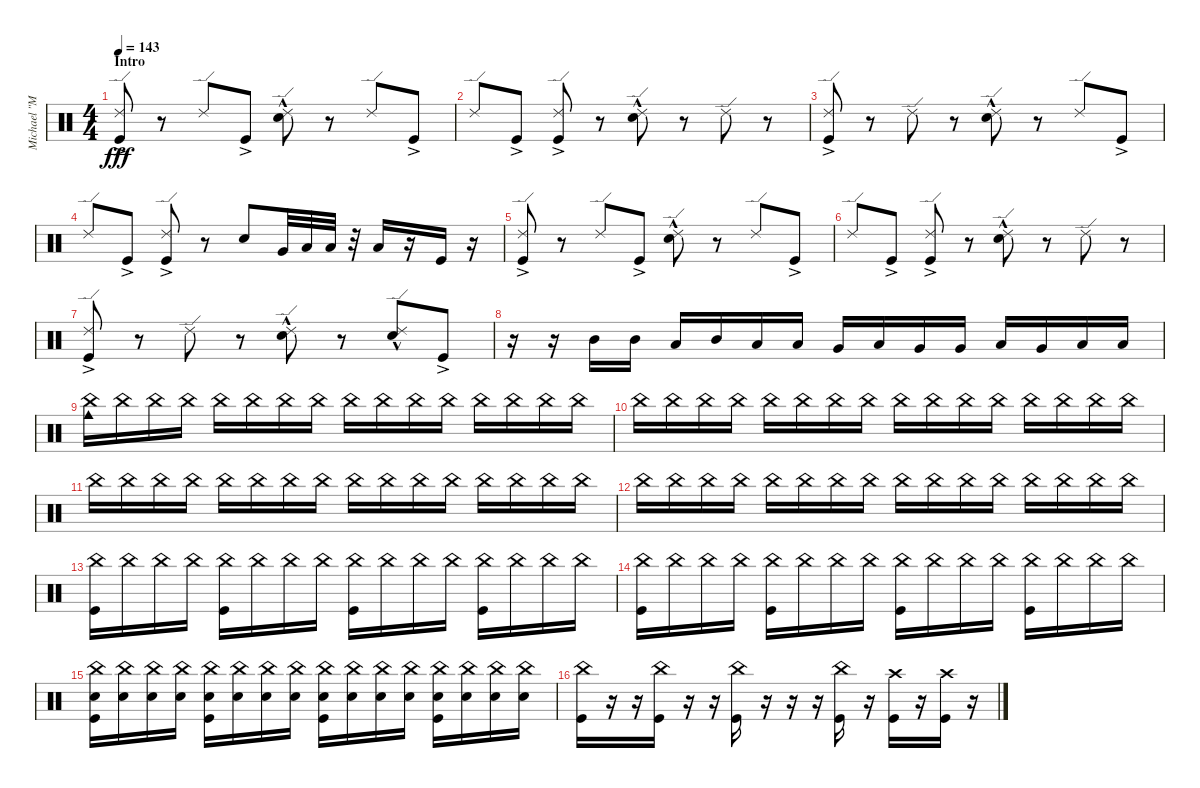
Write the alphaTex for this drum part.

\track ("Michael \"Moose\" Thomas" "Michael \"M") {instrument percussion}
\staff {score}
\articulation defaults
\ts (4 4)
\section ("" "Intro")
\tempo 143
\clef neutral
\ks c
("Kick (hit)"{ac} "Ride (edge) 2").8{dy fff} r.8 "Ride (edge) 2".8 "Kick (hit)"{ac}.8 ("Snare (hit) 2"{hac} "Ride (edge) 2").8 r.8 "Ride (edge) 2".8 "Kick (hit)"{ac}.8 |
"Ride (edge) 2".8 "Kick (hit)"{ac}.8 ("Kick (hit)"{ac} "Ride (edge) 2").8 r.8 ("Snare (hit) 2"{hac} "Ride (edge) 2").8 r.8 "Ride (edge) 2".8 r.8 |
("Kick (hit)"{ac} "Ride (edge) 2").8 r.8 "Ride (edge) 2".8 r.8 ("Snare (hit) 2"{hac} "Ride (edge) 2").8 r.8 "Ride (edge) 2".8 "Kick (hit)"{ac}.8 |
"Ride (edge) 2".8 "Kick (hit)"{ac}.8 ("Kick (hit)"{ac} "Ride (edge) 2").8 r.8 "Snare (hit) 2".8 "Very Low Tom (hit)".32 "Low Floor Tom (hit)".32 "Low Floor Tom (hit)".32 r.32 "Low Floor Tom (hit)".16 r.16 "Kick (hit)".16 r.16 |
("Kick (hit)"{ac} "Ride (edge) 2").8 r.8 "Ride (edge) 2".8 "Kick (hit)"{ac}.8 ("Snare (hit) 2"{hac} "Ride (edge) 2").8 r.8 "Ride (edge) 2".8 "Kick (hit)"{ac}.8 |
"Ride (edge) 2".8 "Kick (hit)"{ac}.8 ("Kick (hit)"{ac} "Ride (edge) 2").8 r.8 ("Snare (hit) 2"{hac} "Ride (edge) 2").8 r.8 "Ride (edge) 2".8 r.8 |
("Kick (hit)"{ac} "Ride (edge) 2").8 r.8 "Ride (edge) 2".8 r.8 ("Snare (hit) 2"{hac} "Ride (edge) 2").8 r.8 ("Ride (edge) 2" "Snare (hit) 2"{hac}).8 "Kick (hit)"{ac}.8 |
r.16 r.16 "Mid Tom (hit)".16 "Mid Tom (hit)".16 "Low Tom (hit)".16 "Mid Tom (hit)".16 "Low Tom (hit)".16 "Low Tom (hit)".16 "Very Low Tom (hit)".16 "Low Tom (hit)".16 "Very Low Tom (hit)".16 "Very Low Tom (hit)".16 "Low Floor Tom (hit)".16 "Very Low Tom (hit)".16 "Low Floor Tom (hit)".16 "Low Floor Tom (hit)".16 |
("Cowbell medium (hit)" "China (hit)").16 "China (hit)".16 "China (hit)".16 "China (hit)".16 "China (hit)".16 "China (hit)".16 "China (hit)".16 "China (hit)".16 "China (hit)".16 "China (hit)".16 "China (hit)".16 "China (hit)".16 "China (hit)".16 "China (hit)".16 "China (hit)".16 "China (hit)".16 |
"China (hit)".16 "China (hit)".16 "China (hit)".16 "China (hit)".16 "China (hit)".16 "China (hit)".16 "China (hit)".16 "China (hit)".16 "China (hit)".16 "China (hit)".16 "China (hit)".16 "China (hit)".16 "China (hit)".16 "China (hit)".16 "China (hit)".16 "China (hit)".16 |
"China (hit)".16 "China (hit)".16 "China (hit)".16 "China (hit)".16 "China (hit)".16 "China (hit)".16 "China (hit)".16 "China (hit)".16 "China (hit)".16 "China (hit)".16 "China (hit)".16 "China (hit)".16 "China (hit)".16 "China (hit)".16 "China (hit)".16 "China (hit)".16 |
"China (hit)".16 "China (hit)".16 "China (hit)".16 "China (hit)".16 "China (hit)".16 "China (hit)".16 "China (hit)".16 "China (hit)".16 "China (hit)".16 "China (hit)".16 "China (hit)".16 "China (hit)".16 "China (hit)".16 "China (hit)".16 "China (hit)".16 "China (hit)".16 |
("China (hit)" "Kick (hit)").16 "China (hit)".16 "China (hit)".16 "China (hit)".16 ("China (hit)" "Kick (hit)").16 "China (hit)".16 "China (hit)".16 "China (hit)".16 ("China (hit)" "Kick (hit)").16 "China (hit)".16 "China (hit)".16 "China (hit)".16 ("China (hit)" "Kick (hit)").16 "China (hit)".16 "China (hit)".16 "China (hit)".16 |
("China (hit)" "Kick (hit)").16 "China (hit)".16 "China (hit)".16 "China (hit)".16 ("China (hit)" "Kick (hit)").16 "China (hit)".16 "China (hit)".16 "China (hit)".16 ("China (hit)" "Kick (hit)").16 "China (hit)".16 "China (hit)".16 "China (hit)".16 ("China (hit)" "Kick (hit)").16 "China (hit)".16 "China (hit)".16 "China (hit)".16 |
("China (hit)" "Kick (hit)" "Snare (hit) 2").16 ("China (hit)" "Snare (hit) 2").16 ("China (hit)" "Snare (hit) 2").16 ("China (hit)" "Snare (hit) 2").16 ("China (hit)" "Kick (hit)" "Snare (hit) 2").16 ("China (hit)" "Snare (hit) 2").16 ("China (hit)" "Snare (hit) 2").16 ("China (hit)" "Snare (hit) 2").16 ("China (hit)" "Kick (hit)" "Snare (hit) 2").16 ("China (hit)" "Snare (hit) 2").16 ("China (hit)" "Snare (hit) 2").16 ("China (hit)" "Snare (hit) 2").16 ("China (hit)" "Kick (hit)" "Snare (hit) 2").16 ("China (hit)" "Snare (hit) 2").16 ("China (hit)" "Snare (hit) 2").16 ("China (hit)" "Snare (hit) 2").16 |
("Kick (hit)" "China (hit)").16 r.16 r.16 ("Kick (hit)" "China (hit)").16 r.16 r.16 ("Kick (hit)" "China (hit)").16 r.16 r.16 r.16 ("Kick (hit)" "China (hit)").16 r.16 ("Kick (hit)" "Crash high (hit)").16 r.16 ("Kick (hit)" "Crash high (hit)").16 r.16
